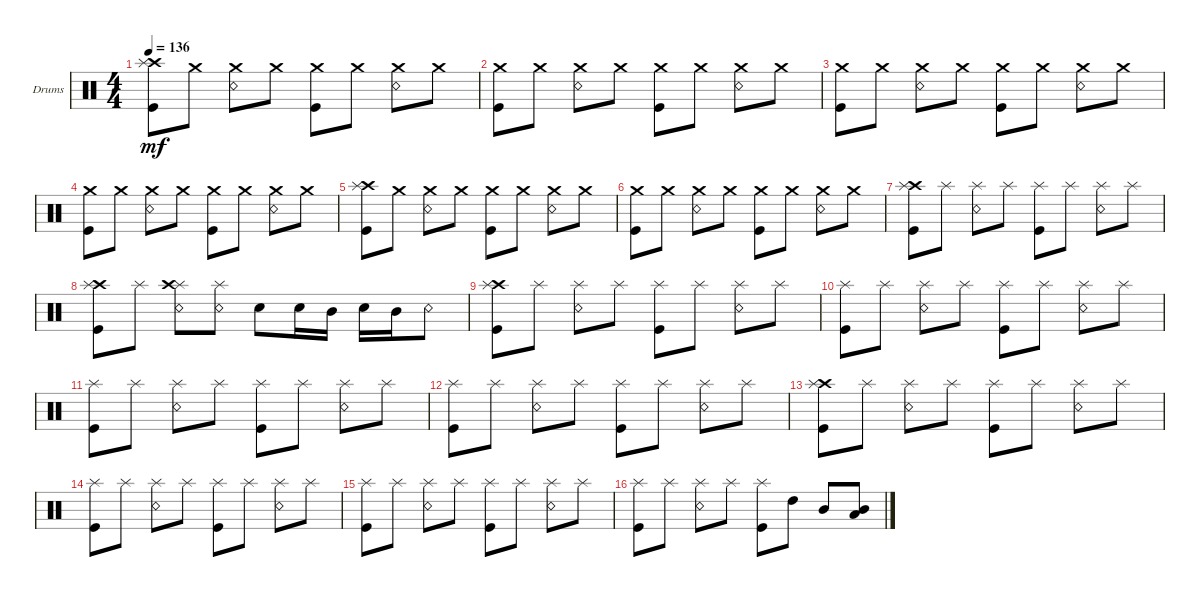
\defaultSystemsLayout 4
\bracketExtendMode groupsimilarinstruments
\firstSystemTrackNameOrientation horizontal
\otherSystemsTrackNameOrientation horizontal
\track ("Нюта" "Drums") {instrument percussion}
\staff {score}
\articulation defaults
\ts (4 4)
\tempo 136
\clef neutral
\ks c
("Crash high (hit)" "Kick (hit)" "Splash (hit)").8{dy mf} "Crash medium (hit)".8 ("Snare (rim shot)" "Crash medium (hit)").8 "Crash medium (hit)".8 ("Kick (hit)" "Crash medium (hit)").8 "Crash medium (hit)".8 ("Snare (rim shot)" "Crash medium (hit)").8 "Crash medium (hit)".8 |
("Kick (hit)" "Crash medium (hit)").8 "Crash medium (hit)".8 ("Snare (rim shot)" "Crash medium (hit)").8 "Crash medium (hit)".8 ("Kick (hit)" "Crash medium (hit)").8 "Crash medium (hit)".8 ("Snare (rim shot)" "Crash medium (hit)").8 "Crash medium (hit)".8 |
("Kick (hit)" "Crash medium (hit)").8 "Crash medium (hit)".8 ("Snare (rim shot)" "Crash medium (hit)").8 "Crash medium (hit)".8 ("Kick (hit)" "Crash medium (hit)").8 "Crash medium (hit)".8 ("Snare (rim shot)" "Crash medium (hit)").8 "Crash medium (hit)".8 |
("Kick (hit)" "Crash medium (hit)").8 "Crash medium (hit)".8 ("Snare (rim shot)" "Crash medium (hit)").8 "Crash medium (hit)".8 ("Kick (hit)" "Crash medium (hit)").8 "Crash medium (hit)".8 ("Snare (rim shot)" "Crash medium (hit)").8 "Crash medium (hit)".8 |
("Crash high (hit)" "Kick (hit)" "Splash (hit)").8 "Crash medium (hit)".8 ("Snare (rim shot)" "Crash medium (hit)").8 "Crash medium (hit)".8 ("Kick (hit)" "Crash medium (hit)").8 "Crash medium (hit)".8 ("Snare (rim shot)" "Crash medium (hit)").8 "Crash medium (hit)".8 |
("Kick (hit)" "Crash medium (hit)").8 "Crash medium (hit)".8 ("Snare (rim shot)" "Crash medium (hit)").8 "Crash medium (hit)".8 ("Kick (hit)" "Crash medium (hit)").8 "Crash medium (hit)".8 ("Snare (rim shot)" "Crash medium (hit)").8 "Crash medium (hit)".8 |
("Crash high (hit)" "Kick (hit)" "Splash (hit)").8 "Splash (hit)".8 ("Snare (rim shot)" "Splash (hit)").8 "Splash (hit)".8 ("Kick (hit)" "Splash (hit)").8 "Splash (hit)".8 ("Snare (rim shot)" "Splash (hit)").8 "Splash (hit)".8 |
("Crash high (hit)" "Kick (hit)" "Splash (hit)").8 "Splash (hit)".8 ("Snare (rim shot)" "Splash (hit)" "Crash high (hit)").8 ("Splash (hit)" "Snare (rim shot)").8 "Snare (hit) 2".8 "Snare (hit) 2".16 "Mid Tom (hit)".16 "Snare (hit) 2".16 "Mid Tom (hit)".16 "Snare (rim shot)".8 |
("Crash high (hit)" "Kick (hit)" "Splash (hit)").8 "Splash (hit)".8 ("Snare (rim shot)" "Splash (hit)").8 "Splash (hit)".8 ("Kick (hit)" "Splash (hit)").8 "Splash (hit)".8 ("Snare (rim shot)" "Splash (hit)").8 "Splash (hit)".8 |
("Kick (hit)" "Splash (hit)").8 "Splash (hit)".8 ("Snare (rim shot)" "Splash (hit)").8 "Splash (hit)".8 ("Kick (hit)" "Splash (hit)").8 "Splash (hit)".8 ("Snare (rim shot)" "Splash (hit)").8 "Splash (hit)".8 |
("Kick (hit)" "Splash (hit)").8 "Splash (hit)".8 ("Snare (rim shot)" "Splash (hit)").8 "Splash (hit)".8 ("Kick (hit)" "Splash (hit)").8 "Splash (hit)".8 ("Snare (rim shot)" "Splash (hit)").8 "Splash (hit)".8 |
("Kick (hit)" "Splash (hit)").8 "Splash (hit)".8 ("Snare (rim shot)" "Splash (hit)").8 "Splash (hit)".8 ("Kick (hit)" "Splash (hit)").8 "Splash (hit)".8 ("Snare (rim shot)" "Splash (hit)").8 "Splash (hit)".8 |
("Crash high (hit)" "Kick (hit)" "Splash (hit)").8 "Splash (hit)".8 ("Snare (rim shot)" "Splash (hit)").8 "Splash (hit)".8 ("Kick (hit)" "Splash (hit)").8 "Splash (hit)".8 ("Snare (rim shot)" "Splash (hit)").8 "Splash (hit)".8 |
("Kick (hit)" "Splash (hit)").8 "Splash (hit)".8 ("Snare (rim shot)" "Splash (hit)").8 "Splash (hit)".8 ("Kick (hit)" "Splash (hit)").8 "Splash (hit)".8 ("Snare (rim shot)" "Splash (hit)").8 "Splash (hit)".8 |
("Kick (hit)" "Splash (hit)").8 "Splash (hit)".8 ("Snare (rim shot)" "Splash (hit)").8 "Splash (hit)".8 ("Kick (hit)" "Splash (hit)").8 "Splash (hit)".8 ("Snare (rim shot)" "Splash (hit)").8 "Splash (hit)".8 |
("Kick (hit)" "Splash (hit)").8 "Splash (hit)".8 ("Snare (rim shot)" "Splash (hit)").8 "Splash (hit)".8 ("Kick (hit)" "Splash (hit)").8 "High Tom (hit)".8 "Mid Tom (hit)".8 ("Mid Tom (hit)" "Low Tom (hit)").8
